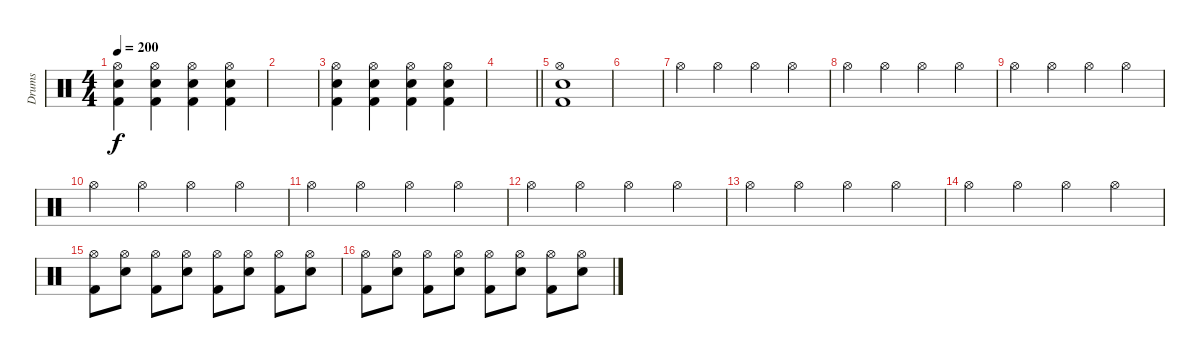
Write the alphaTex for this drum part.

\track ("Drums" "Drums") {instrument percussion}
\staff {score}
\articulation defaults
\ts (4 4)
\tempo 200
\clef neutral
\ks c
("Hi-Hat (open)" "Electric Snare (hit)" "Kick (hit) 2").4{dy f} ("Hi-Hat (open)" "Electric Snare (hit)" "Kick (hit) 2").4 ("Hi-Hat (open)" "Electric Snare (hit)" "Kick (hit) 2").4 ("Hi-Hat (open)" "Electric Snare (hit)" "Kick (hit) 2").4 |
|
("Hi-Hat (open)" "Electric Snare (hit)" "Kick (hit) 2").4 ("Hi-Hat (open)" "Electric Snare (hit)" "Kick (hit) 2").4 ("Hi-Hat (open)" "Electric Snare (hit)" "Kick (hit) 2").4 ("Hi-Hat (open)" "Electric Snare (hit)" "Kick (hit) 2").4 |
\barLineRight lightlight
|
("Hi-Hat (open)" "Electric Snare (hit)" "Kick (hit) 2").1 |
|
"Hi-Hat (open)".4 "Hi-Hat (open)".4 "Hi-Hat (open)".4 "Hi-Hat (open)".4 |
"Hi-Hat (open)".4 "Hi-Hat (open)".4 "Hi-Hat (open)".4 "Hi-Hat (open)".4 |
"Hi-Hat (open)".4 "Hi-Hat (open)".4 "Hi-Hat (open)".4 "Hi-Hat (open)".4 |
"Hi-Hat (open)".4 "Hi-Hat (open)".4 "Hi-Hat (open)".4 "Hi-Hat (open)".4 |
"Hi-Hat (open)".4 "Hi-Hat (open)".4 "Hi-Hat (open)".4 "Hi-Hat (open)".4 |
"Hi-Hat (open)".4 "Hi-Hat (open)".4 "Hi-Hat (open)".4 "Hi-Hat (open)".4 |
"Hi-Hat (open)".4 "Hi-Hat (open)".4 "Hi-Hat (open)".4 "Hi-Hat (open)".4 |
"Hi-Hat (open)".4 "Hi-Hat (open)".4 "Hi-Hat (open)".4 "Hi-Hat (open)".4 |
("Hi-Hat (open)" "Kick (hit) 2").8 ("Hi-Hat (open)" "Electric Snare (hit)").8 ("Hi-Hat (open)" "Kick (hit) 2").8 ("Hi-Hat (open)" "Electric Snare (hit)").8 ("Hi-Hat (open)" "Kick (hit) 2").8 ("Hi-Hat (open)" "Electric Snare (hit)").8 ("Hi-Hat (open)" "Kick (hit) 2").8 ("Hi-Hat (open)" "Electric Snare (hit)").8 |
("Hi-Hat (open)" "Kick (hit) 2").8 ("Hi-Hat (open)" "Electric Snare (hit)").8 ("Hi-Hat (open)" "Kick (hit) 2").8 ("Hi-Hat (open)" "Electric Snare (hit)").8 ("Hi-Hat (open)" "Kick (hit) 2").8 ("Hi-Hat (open)" "Electric Snare (hit)").8 ("Hi-Hat (open)" "Kick (hit) 2").8 ("Hi-Hat (open)" "Electric Snare (hit)").8
